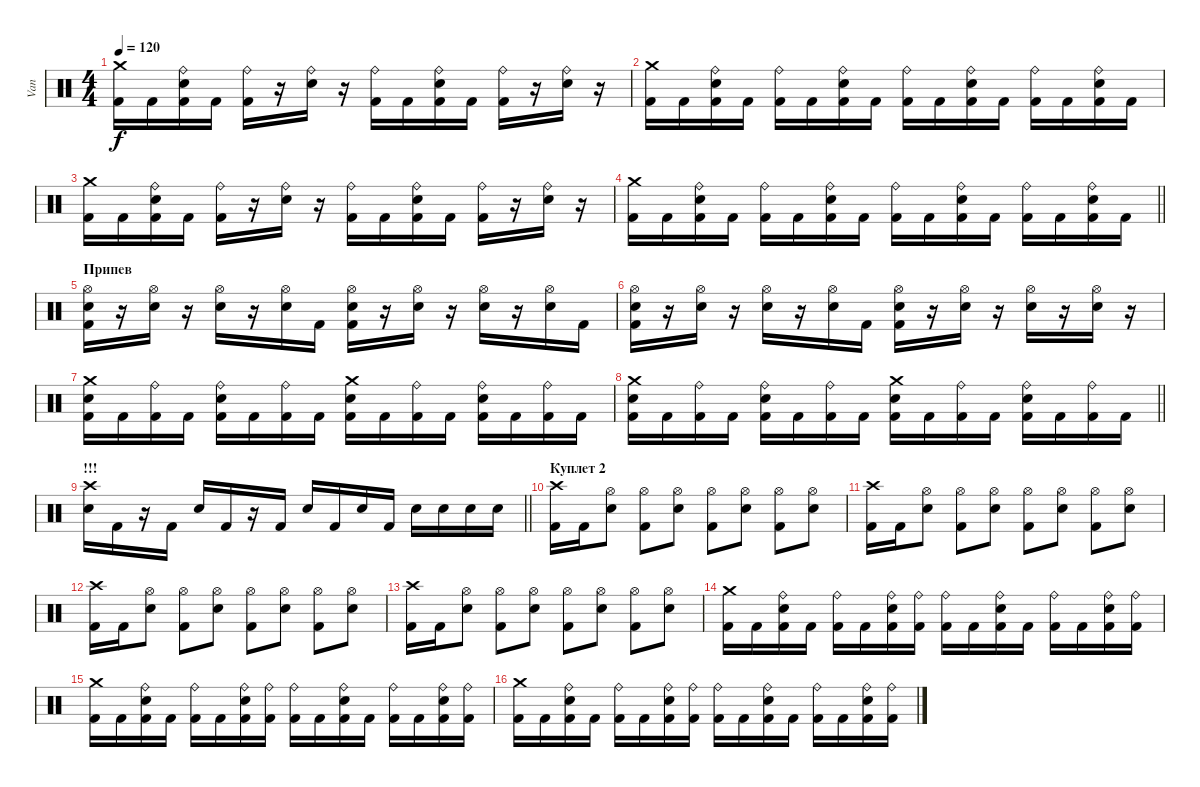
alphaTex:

\track ("Van" "Van") {instrument percussion}
\staff {score}
\articulation defaults
\ts (4 4)
\tempo 120
\clef neutral
\ks c
("Crash medium (hit)" "Kick (hit) 2").16{dy f} "Kick (hit) 2".16 ("Ride (bell)" "Electric Snare (hit)" "Kick (hit) 2").16 "Kick (hit) 2".16 ("Ride (bell)" "Kick (hit) 2").16 r.16 ("Ride (bell)" "Electric Snare (hit)").16 r.16 ("Ride (bell)" "Kick (hit) 2").16 "Kick (hit) 2".16 ("Ride (bell)" "Electric Snare (hit)" "Kick (hit) 2").16 "Kick (hit) 2".16 ("Ride (bell)" "Kick (hit) 2").16 r.16 ("Ride (bell)" "Electric Snare (hit)").16 r.16 |
("Crash medium (hit)" "Kick (hit) 2").16 "Kick (hit) 2".16 ("Ride (bell)" "Electric Snare (hit)" "Kick (hit) 2").16 "Kick (hit) 2".16 ("Ride (bell)" "Kick (hit) 2").16 "Kick (hit) 2".16 ("Ride (bell)" "Electric Snare (hit)" "Kick (hit) 2").16 "Kick (hit) 2".16 ("Ride (bell)" "Kick (hit) 2").16 "Kick (hit) 2".16 ("Ride (bell)" "Electric Snare (hit)" "Kick (hit) 2").16 "Kick (hit) 2".16 ("Ride (bell)" "Kick (hit) 2").16 "Kick (hit) 2".16 ("Ride (bell)" "Electric Snare (hit)" "Kick (hit) 2").16 "Kick (hit) 2".16 |
("Crash medium (hit)" "Kick (hit) 2").16 "Kick (hit) 2".16 ("Ride (bell)" "Electric Snare (hit)" "Kick (hit) 2").16 "Kick (hit) 2".16 ("Ride (bell)" "Kick (hit) 2").16 r.16 ("Ride (bell)" "Electric Snare (hit)").16 r.16 ("Ride (bell)" "Kick (hit) 2").16 "Kick (hit) 2".16 ("Ride (bell)" "Electric Snare (hit)" "Kick (hit) 2").16 "Kick (hit) 2".16 ("Ride (bell)" "Kick (hit) 2").16 r.16 ("Ride (bell)" "Electric Snare (hit)").16 r.16 |
\barLineRight lightlight
("Crash medium (hit)" "Kick (hit) 2").16 "Kick (hit) 2".16 ("Ride (bell)" "Electric Snare (hit)" "Kick (hit) 2").16 "Kick (hit) 2".16 ("Ride (bell)" "Kick (hit) 2").16 "Kick (hit) 2".16 ("Ride (bell)" "Electric Snare (hit)" "Kick (hit) 2").16 "Kick (hit) 2".16 ("Ride (bell)" "Kick (hit) 2").16 "Kick (hit) 2".16 ("Ride (bell)" "Electric Snare (hit)" "Kick (hit) 2").16 "Kick (hit) 2".16 ("Ride (bell)" "Kick (hit) 2").16 "Kick (hit) 2".16 ("Ride (bell)" "Electric Snare (hit)" "Kick (hit) 2").16 "Kick (hit) 2".16 |
\section ("" "Припев")
("Hi-Hat (open)" "Electric Snare (hit)" "Kick (hit) 2").16 r.16 ("Hi-Hat (open)" "Electric Snare (hit)").16 r.16 ("Hi-Hat (open)" "Electric Snare (hit)").16 r.16 ("Hi-Hat (open)" "Electric Snare (hit)").16 "Kick (hit) 2".16 ("Hi-Hat (open)" "Electric Snare (hit)" "Kick (hit) 2").16 r.16 ("Hi-Hat (open)" "Electric Snare (hit)").16 r.16 ("Hi-Hat (open)" "Electric Snare (hit)").16 r.16 ("Hi-Hat (open)" "Electric Snare (hit)").16 "Kick (hit) 2".16 |
("Hi-Hat (open)" "Electric Snare (hit)" "Kick (hit) 2").16 r.16 ("Hi-Hat (open)" "Electric Snare (hit)").16 r.16 ("Hi-Hat (open)" "Electric Snare (hit)").16 r.16 ("Hi-Hat (open)" "Electric Snare (hit)").16 "Kick (hit) 2".16 ("Hi-Hat (open)" "Electric Snare (hit)" "Kick (hit) 2").16 r.16 ("Hi-Hat (open)" "Electric Snare (hit)").16 r.16 ("Hi-Hat (open)" "Electric Snare (hit)").16 r.16 ("Hi-Hat (open)" "Electric Snare (hit)").16 r.16 |
("Crash medium (hit)" "Electric Snare (hit)" "Kick (hit) 2").16 "Kick (hit) 2".16 ("Ride (bell)" "Kick (hit) 2").16 "Kick (hit) 2".16 ("Ride (bell)" "Electric Snare (hit)" "Kick (hit) 2").16 "Kick (hit) 2".16 ("Ride (bell)" "Kick (hit) 2").16 "Kick (hit) 2".16 ("Crash medium (hit)" "Electric Snare (hit)" "Kick (hit) 2").16 "Kick (hit) 2".16 ("Ride (bell)" "Kick (hit) 2").16 "Kick (hit) 2".16 ("Ride (bell)" "Electric Snare (hit)" "Kick (hit) 2").16 "Kick (hit) 2".16 ("Ride (bell)" "Kick (hit) 2").16 "Kick (hit) 2".16 |
\barLineRight lightlight
("Crash medium (hit)" "Electric Snare (hit)" "Kick (hit) 2").16 "Kick (hit) 2".16 ("Ride (bell)" "Kick (hit) 2").16 "Kick (hit) 2".16 ("Ride (bell)" "Electric Snare (hit)" "Kick (hit) 2").16 "Kick (hit) 2".16 ("Ride (bell)" "Kick (hit) 2").16 "Kick (hit) 2".16 ("Crash medium (hit)" "Electric Snare (hit)" "Kick (hit) 2").16 "Kick (hit) 2".16 ("Ride (bell)" "Kick (hit) 2").16 "Kick (hit) 2".16 ("Ride (bell)" "Electric Snare (hit)" "Kick (hit) 2").16 "Kick (hit) 2".16 ("Ride (bell)" "Kick (hit) 2").16 "Kick (hit) 2".16 |
\section ("" "!!!")
\barLineRight lightlight
("Crash high (hit)" "Electric Snare (hit)").16 "Kick (hit) 2".16 r.16 "Kick (hit) 2".16 "Electric Snare (hit)".16 "Kick (hit) 2".16 r.16 "Kick (hit) 2".16 "Electric Snare (hit)".16 "Kick (hit) 2".16 "Electric Snare (hit)".16 "Kick (hit) 2".16 "Electric Snare (hit)".16 "Electric Snare (hit)".16 "Electric Snare (hit)".16 "Electric Snare (hit)".16 |
\section ("" "Куплет 2")
("Crash high (hit)" "Kick (hit) 2").16 "Kick (hit) 2".16 ("Hi-Hat (open)" "Electric Snare (hit)").8 ("Hi-Hat (open)" "Kick (hit) 2").8 ("Hi-Hat (open)" "Electric Snare (hit)").8 ("Hi-Hat (open)" "Kick (hit) 2").8 ("Hi-Hat (open)" "Electric Snare (hit)").8 ("Hi-Hat (open)" "Kick (hit) 2").8 ("Hi-Hat (open)" "Electric Snare (hit)").8 |
("Crash high (hit)" "Kick (hit) 2").16 "Kick (hit) 2".16 ("Hi-Hat (open)" "Electric Snare (hit)").8 ("Hi-Hat (open)" "Kick (hit) 2").8 ("Hi-Hat (open)" "Electric Snare (hit)").8 ("Hi-Hat (open)" "Kick (hit) 2").8 ("Hi-Hat (open)" "Electric Snare (hit)").8 ("Hi-Hat (open)" "Kick (hit) 2").8 ("Hi-Hat (open)" "Electric Snare (hit)").8 |
("Crash high (hit)" "Kick (hit) 2").16 "Kick (hit) 2".16 ("Hi-Hat (open)" "Electric Snare (hit)").8 ("Hi-Hat (open)" "Kick (hit) 2").8 ("Hi-Hat (open)" "Electric Snare (hit)").8 ("Hi-Hat (open)" "Kick (hit) 2").8 ("Hi-Hat (open)" "Electric Snare (hit)").8 ("Hi-Hat (open)" "Kick (hit) 2").8 ("Hi-Hat (open)" "Electric Snare (hit)").8 |
("Crash high (hit)" "Kick (hit) 2").16 "Kick (hit) 2".16 ("Hi-Hat (open)" "Electric Snare (hit)").8 ("Hi-Hat (open)" "Kick (hit) 2").8 ("Hi-Hat (open)" "Electric Snare (hit)").8 ("Hi-Hat (open)" "Kick (hit) 2").8 ("Hi-Hat (open)" "Electric Snare (hit)").8 ("Hi-Hat (open)" "Kick (hit) 2").8 ("Hi-Hat (open)" "Electric Snare (hit)").8 |
("Crash medium (hit)" "Kick (hit) 2").16 "Kick (hit) 2".16 ("Ride (bell)" "Electric Snare (hit)" "Kick (hit) 2").16 "Kick (hit) 2".16 ("Ride (bell)" "Kick (hit) 2").16 "Kick (hit) 2".16 ("Ride (bell)" "Electric Snare (hit)" "Kick (hit) 2").16 ("Ride (bell)" "Kick (hit) 2").16 ("Ride (bell)" "Kick (hit) 2").16 "Kick (hit) 2".16 ("Ride (bell)" "Electric Snare (hit)" "Kick (hit) 2").16 "Kick (hit) 2".16 ("Ride (bell)" "Kick (hit) 2").16 "Kick (hit) 2".16 ("Ride (bell)" "Electric Snare (hit)" "Kick (hit) 2").16 ("Ride (bell)" "Kick (hit) 2").16 |
("Crash medium (hit)" "Kick (hit) 2").16 "Kick (hit) 2".16 ("Ride (bell)" "Electric Snare (hit)" "Kick (hit) 2").16 "Kick (hit) 2".16 ("Ride (bell)" "Kick (hit) 2").16 "Kick (hit) 2".16 ("Ride (bell)" "Electric Snare (hit)" "Kick (hit) 2").16 ("Ride (bell)" "Kick (hit) 2").16 ("Ride (bell)" "Kick (hit) 2").16 "Kick (hit) 2".16 ("Ride (bell)" "Electric Snare (hit)" "Kick (hit) 2").16 "Kick (hit) 2".16 ("Ride (bell)" "Kick (hit) 2").16 "Kick (hit) 2".16 ("Ride (bell)" "Electric Snare (hit)" "Kick (hit) 2").16 ("Ride (bell)" "Kick (hit) 2").16 |
("Crash medium (hit)" "Kick (hit) 2").16 "Kick (hit) 2".16 ("Ride (bell)" "Electric Snare (hit)" "Kick (hit) 2").16 "Kick (hit) 2".16 ("Ride (bell)" "Kick (hit) 2").16 "Kick (hit) 2".16 ("Ride (bell)" "Electric Snare (hit)" "Kick (hit) 2").16 ("Ride (bell)" "Kick (hit) 2").16 ("Ride (bell)" "Kick (hit) 2").16 "Kick (hit) 2".16 ("Ride (bell)" "Electric Snare (hit)" "Kick (hit) 2").16 "Kick (hit) 2".16 ("Ride (bell)" "Kick (hit) 2").16 "Kick (hit) 2".16 ("Ride (bell)" "Electric Snare (hit)" "Kick (hit) 2").16 ("Ride (bell)" "Kick (hit) 2").16
